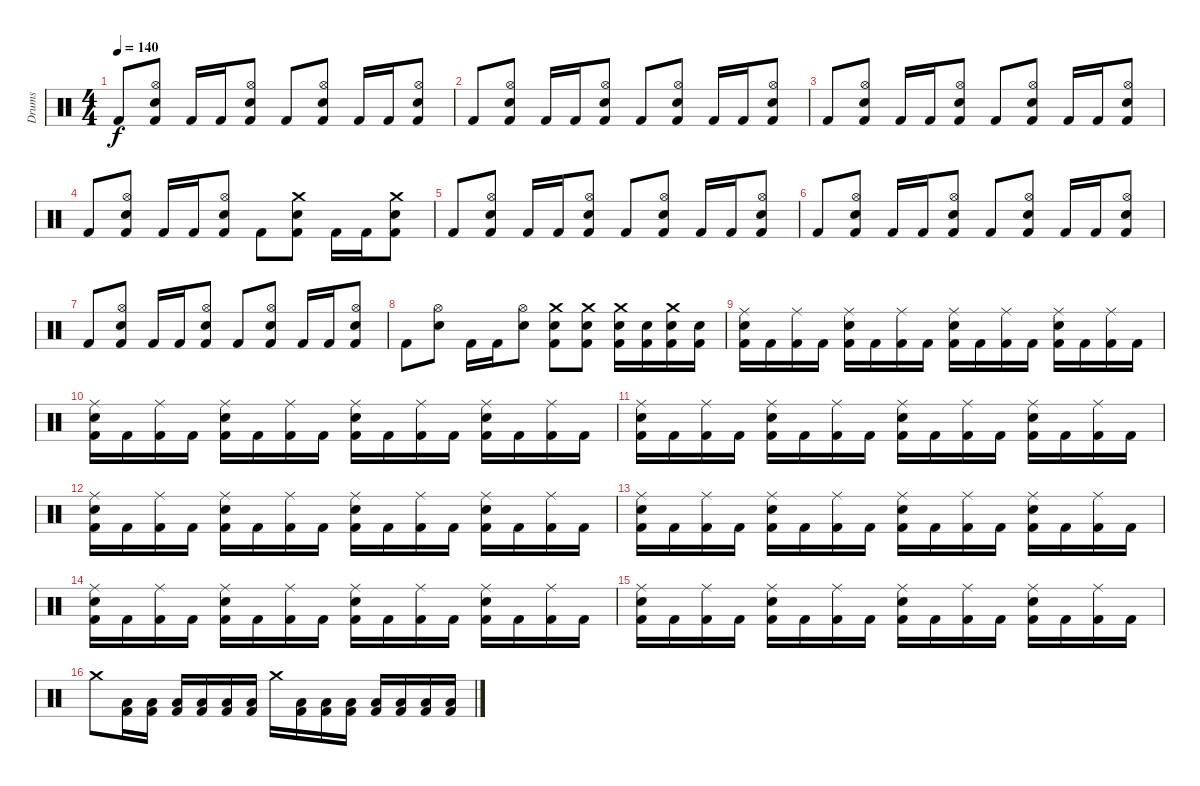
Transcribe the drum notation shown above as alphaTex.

\track ("Drums" "Drums") {instrument percussion}
\staff {score}
\articulation defaults
\ts (4 4)
\tempo 140
\clef neutral
\ks c "Kick (hit) 2".8{dy f}
("Hi-Hat (open)" "Electric Snare (hit)" "Kick (hit) 2").8 "Kick (hit) 2".16 "Kick (hit) 2".16 ("Hi-Hat (open)" "Electric Snare (hit)" "Kick (hit) 2").8 "Kick (hit) 2".8 ("Hi-Hat (open)" "Electric Snare (hit)" "Kick (hit) 2").8 "Kick (hit) 2".16 "Kick (hit) 2".16 ("Hi-Hat (open)" "Electric Snare (hit)" "Kick (hit) 2").8 |
"Kick (hit) 2".8 ("Hi-Hat (open)" "Electric Snare (hit)" "Kick (hit) 2").8 "Kick (hit) 2".16 "Kick (hit) 2".16 ("Hi-Hat (open)" "Electric Snare (hit)" "Kick (hit) 2").8 "Kick (hit) 2".8 ("Hi-Hat (open)" "Electric Snare (hit)" "Kick (hit) 2").8 "Kick (hit) 2".16 "Kick (hit) 2".16 ("Hi-Hat (open)" "Electric Snare (hit)" "Kick (hit) 2").8 |
"Kick (hit) 2".8 ("Hi-Hat (open)" "Electric Snare (hit)" "Kick (hit) 2").8 "Kick (hit) 2".16 "Kick (hit) 2".16 ("Hi-Hat (open)" "Electric Snare (hit)" "Kick (hit) 2").8 "Kick (hit) 2".8 ("Hi-Hat (open)" "Electric Snare (hit)" "Kick (hit) 2").8 "Kick (hit) 2".16 "Kick (hit) 2".16 ("Hi-Hat (open)" "Electric Snare (hit)" "Kick (hit) 2").8 |
"Kick (hit) 2".8 ("Hi-Hat (open)" "Electric Snare (hit)" "Kick (hit) 2").8 "Kick (hit) 2".16 "Kick (hit) 2".16 ("Hi-Hat (open)" "Electric Snare (hit)" "Kick (hit) 2").8 "Kick (hit) 2".8 ("Crash medium (hit)" "Electric Snare (hit)" "Kick (hit) 2").8 "Kick (hit) 2".16 "Kick (hit) 2".16 ("Crash medium (hit)" "Electric Snare (hit)" "Kick (hit) 2").8 |
"Kick (hit) 2".8 ("Hi-Hat (open)" "Electric Snare (hit)" "Kick (hit) 2").8 "Kick (hit) 2".16 "Kick (hit) 2".16 ("Hi-Hat (open)" "Electric Snare (hit)" "Kick (hit) 2").8 "Kick (hit) 2".8 ("Hi-Hat (open)" "Electric Snare (hit)" "Kick (hit) 2").8 "Kick (hit) 2".16 "Kick (hit) 2".16 ("Hi-Hat (open)" "Electric Snare (hit)" "Kick (hit) 2").8 |
"Kick (hit) 2".8 ("Hi-Hat (open)" "Electric Snare (hit)" "Kick (hit) 2").8 "Kick (hit) 2".16 "Kick (hit) 2".16 ("Hi-Hat (open)" "Electric Snare (hit)" "Kick (hit) 2").8 "Kick (hit) 2".8 ("Hi-Hat (open)" "Electric Snare (hit)" "Kick (hit) 2").8 "Kick (hit) 2".16 "Kick (hit) 2".16 ("Hi-Hat (open)" "Electric Snare (hit)" "Kick (hit) 2").8 |
"Kick (hit) 2".8 ("Hi-Hat (open)" "Electric Snare (hit)" "Kick (hit) 2").8 "Kick (hit) 2".16 "Kick (hit) 2".16 ("Hi-Hat (open)" "Electric Snare (hit)" "Kick (hit) 2").8 "Kick (hit) 2".8 ("Hi-Hat (open)" "Electric Snare (hit)" "Kick (hit) 2").8 "Kick (hit) 2".16 "Kick (hit) 2".16 ("Hi-Hat (open)" "Electric Snare (hit)" "Kick (hit) 2").8 |
"Kick (hit) 2".8 ("Hi-Hat (open)" "Electric Snare (hit)").8 "Kick (hit) 2".16 "Kick (hit) 2".16 ("Hi-Hat (open)" "Electric Snare (hit)").8 ("Crash medium (hit)" "Electric Snare (hit)" "Kick (hit) 2").8 ("Crash medium (hit)" "Electric Snare (hit)" "Kick (hit) 2").8 ("Crash medium (hit)" "Electric Snare (hit)" "Kick (hit) 2").16 ("Electric Snare (hit)" "Kick (hit) 2").16 ("Crash medium (hit)" "Electric Snare (hit)" "Kick (hit) 2").16 ("Electric Snare (hit)" "Kick (hit) 2").16 |
("Ride (middle)" "Electric Snare (hit)" "Kick (hit) 2").16 "Kick (hit) 2".16 ("Ride (middle)" "Kick (hit) 2").16 "Kick (hit) 2".16 ("Ride (middle)" "Electric Snare (hit)" "Kick (hit) 2").16 "Kick (hit) 2".16 ("Ride (middle)" "Kick (hit) 2").16 "Kick (hit) 2".16 ("Ride (middle)" "Electric Snare (hit)" "Kick (hit) 2").16 "Kick (hit) 2".16 ("Ride (middle)" "Kick (hit) 2").16 "Kick (hit) 2".16 ("Ride (middle)" "Electric Snare (hit)" "Kick (hit) 2").16 "Kick (hit) 2".16 ("Ride (middle)" "Kick (hit) 2").16 "Kick (hit) 2".16 |
("Ride (middle)" "Electric Snare (hit)" "Kick (hit) 2").16 "Kick (hit) 2".16 ("Ride (middle)" "Kick (hit) 2").16 "Kick (hit) 2".16 ("Ride (middle)" "Electric Snare (hit)" "Kick (hit) 2").16 "Kick (hit) 2".16 ("Ride (middle)" "Kick (hit) 2").16 "Kick (hit) 2".16 ("Ride (middle)" "Electric Snare (hit)" "Kick (hit) 2").16 "Kick (hit) 2".16 ("Ride (middle)" "Kick (hit) 2").16 "Kick (hit) 2".16 ("Ride (middle)" "Electric Snare (hit)" "Kick (hit) 2").16 "Kick (hit) 2".16 ("Ride (middle)" "Kick (hit) 2").16 "Kick (hit) 2".16 |
("Ride (middle)" "Electric Snare (hit)" "Kick (hit) 2").16 "Kick (hit) 2".16 ("Ride (middle)" "Kick (hit) 2").16 "Kick (hit) 2".16 ("Ride (middle)" "Electric Snare (hit)" "Kick (hit) 2").16 "Kick (hit) 2".16 ("Ride (middle)" "Kick (hit) 2").16 "Kick (hit) 2".16 ("Ride (middle)" "Electric Snare (hit)" "Kick (hit) 2").16 "Kick (hit) 2".16 ("Ride (middle)" "Kick (hit) 2").16 "Kick (hit) 2".16 ("Ride (middle)" "Electric Snare (hit)" "Kick (hit) 2").16 "Kick (hit) 2".16 ("Ride (middle)" "Kick (hit) 2").16 "Kick (hit) 2".16 |
("Ride (middle)" "Electric Snare (hit)" "Kick (hit) 2").16 "Kick (hit) 2".16 ("Ride (middle)" "Kick (hit) 2").16 "Kick (hit) 2".16 ("Ride (middle)" "Electric Snare (hit)" "Kick (hit) 2").16 "Kick (hit) 2".16 ("Ride (middle)" "Kick (hit) 2").16 "Kick (hit) 2".16 ("Ride (middle)" "Electric Snare (hit)" "Kick (hit) 2").16 "Kick (hit) 2".16 ("Ride (middle)" "Kick (hit) 2").16 "Kick (hit) 2".16 ("Ride (middle)" "Electric Snare (hit)" "Kick (hit) 2").16 "Kick (hit) 2".16 ("Ride (middle)" "Kick (hit) 2").16 "Kick (hit) 2".16 |
("Ride (middle)" "Electric Snare (hit)" "Kick (hit) 2").16 "Kick (hit) 2".16 ("Ride (middle)" "Kick (hit) 2").16 "Kick (hit) 2".16 ("Ride (middle)" "Electric Snare (hit)" "Kick (hit) 2").16 "Kick (hit) 2".16 ("Ride (middle)" "Kick (hit) 2").16 "Kick (hit) 2".16 ("Ride (middle)" "Electric Snare (hit)" "Kick (hit) 2").16 "Kick (hit) 2".16 ("Ride (middle)" "Kick (hit) 2").16 "Kick (hit) 2".16 ("Ride (middle)" "Electric Snare (hit)" "Kick (hit) 2").16 "Kick (hit) 2".16 ("Ride (middle)" "Kick (hit) 2").16 "Kick (hit) 2".16 |
("Ride (middle)" "Electric Snare (hit)" "Kick (hit) 2").16 "Kick (hit) 2".16 ("Ride (middle)" "Kick (hit) 2").16 "Kick (hit) 2".16 ("Ride (middle)" "Electric Snare (hit)" "Kick (hit) 2").16 "Kick (hit) 2".16 ("Ride (middle)" "Kick (hit) 2").16 "Kick (hit) 2".16 ("Ride (middle)" "Electric Snare (hit)" "Kick (hit) 2").16 "Kick (hit) 2".16 ("Ride (middle)" "Kick (hit) 2").16 "Kick (hit) 2".16 ("Ride (middle)" "Electric Snare (hit)" "Kick (hit) 2").16 "Kick (hit) 2".16 ("Ride (middle)" "Kick (hit) 2").16 "Kick (hit) 2".16 |
("Ride (middle)" "Electric Snare (hit)" "Kick (hit) 2").16 "Kick (hit) 2".16 ("Ride (middle)" "Kick (hit) 2").16 "Kick (hit) 2".16 ("Ride (middle)" "Electric Snare (hit)" "Kick (hit) 2").16 "Kick (hit) 2".16 ("Ride (middle)" "Kick (hit) 2").16 "Kick (hit) 2".16 ("Ride (middle)" "Electric Snare (hit)" "Kick (hit) 2").16 "Kick (hit) 2".16 ("Ride (middle)" "Kick (hit) 2").16 "Kick (hit) 2".16 ("Ride (middle)" "Electric Snare (hit)" "Kick (hit) 2").16 "Kick (hit) 2".16 ("Ride (middle)" "Kick (hit) 2").16 "Kick (hit) 2".16 |
"Crash medium (hit)".8 ("Low Tom (hit)" "Kick (hit) 2").16 ("Low Tom (hit)" "Kick (hit) 2").16 ("Low Tom (hit)" "Kick (hit) 2").16 ("Low Tom (hit)" "Kick (hit) 2").16 ("Low Tom (hit)" "Kick (hit) 2").16 ("Low Tom (hit)" "Kick (hit) 2").16 "Crash medium (hit)".16 ("Low Tom (hit)" "Kick (hit) 2").16 ("Low Tom (hit)" "Kick (hit) 2").16 ("Low Tom (hit)" "Kick (hit) 2").16 ("Low Tom (hit)" "Kick (hit) 2").16 ("Low Tom (hit)" "Kick (hit) 2").16 ("Low Tom (hit)" "Kick (hit) 2").16 ("Low Tom (hit)" "Kick (hit) 2").16
